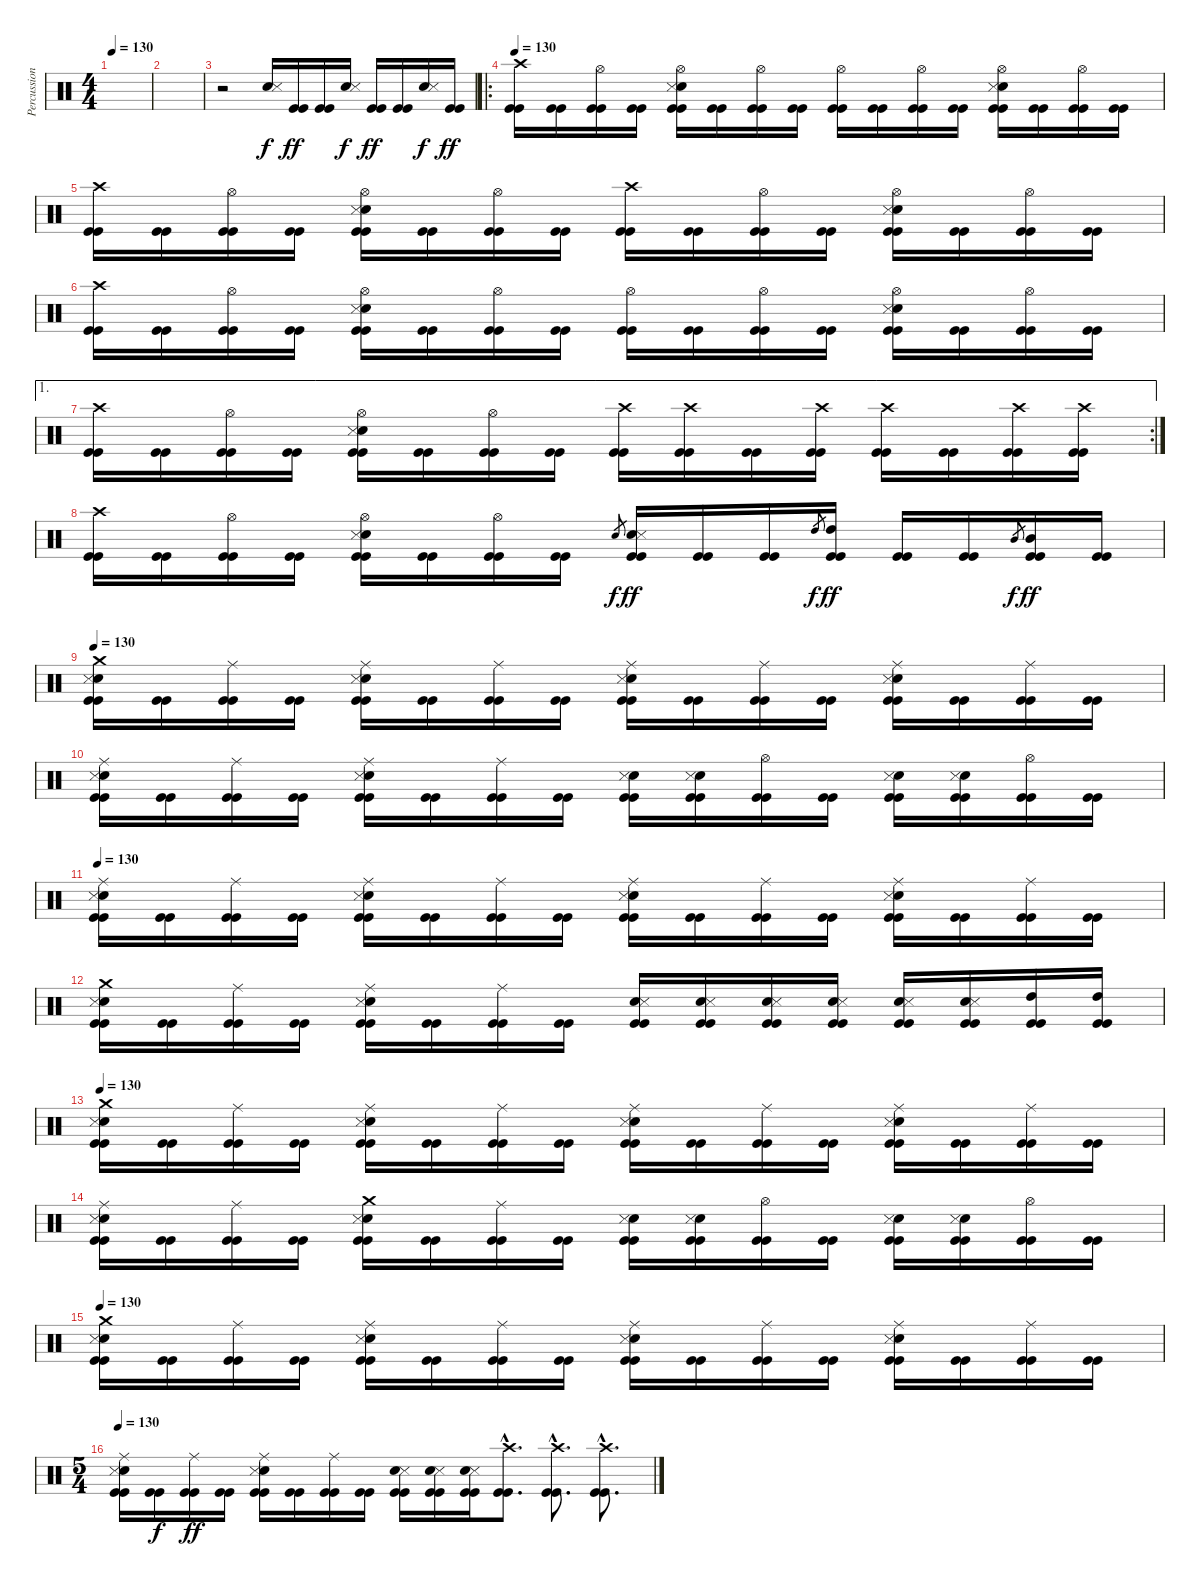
\track ("Percussion" "Percussion") {instrument percussion}
\staff {score}
\articulation defaults
\ts (4 4)
\tempo 130
\clef neutral
\ks c
|
|
r.2 ("Electric Snare (hit)" "Snare (side stick) 3").16{dy f} ("Kick (hit)" "Kick (hit)").16{dy ff} ("Kick (hit)" "Kick (hit)").16 ("Electric Snare (hit)" "Snare (side stick) 3").16{dy f} ("Kick (hit)" "Kick (hit)").16{dy ff} ("Kick (hit)" "Kick (hit)").16 ("Electric Snare (hit)" "Snare (side stick) 3").16{dy f} ("Kick (hit)" "Kick (hit)").16{dy ff} |
\ro
\tempo 130
("Crash high (hit)" "Kick (hit)" "Kick (hit)").16 ("Kick (hit)" "Kick (hit)").16 ("Hi-Hat (open)" "Kick (hit)" "Kick (hit)").16 ("Kick (hit)" "Kick (hit)").16 ("Electric Snare (hit)" "Snare (side stick) 3" "Hi-Hat (open)" "Kick (hit)" "Kick (hit)").16 ("Kick (hit)" "Kick (hit)").16 ("Hi-Hat (open)" "Kick (hit)" "Kick (hit)").16 ("Kick (hit)" "Kick (hit)").16 ("Hi-Hat (open)" "Kick (hit)" "Kick (hit)").16 ("Kick (hit)" "Kick (hit)").16 ("Hi-Hat (open)" "Kick (hit)" "Kick (hit)").16 ("Kick (hit)" "Kick (hit)").16 ("Electric Snare (hit)" "Snare (side stick) 3" "Hi-Hat (open)" "Kick (hit)" "Kick (hit)").16 ("Kick (hit)" "Kick (hit)").16 ("Hi-Hat (open)" "Kick (hit)" "Kick (hit)").16 ("Kick (hit)" "Kick (hit)").16 |
("Crash high (hit)" "Kick (hit)" "Kick (hit)").16 ("Kick (hit)" "Kick (hit)").16 ("Hi-Hat (open)" "Kick (hit)" "Kick (hit)").16 ("Kick (hit)" "Kick (hit)").16 ("Electric Snare (hit)" "Snare (side stick) 3" "Hi-Hat (open)" "Kick (hit)" "Kick (hit)").16 ("Kick (hit)" "Kick (hit)").16 ("Hi-Hat (open)" "Kick (hit)" "Kick (hit)").16 ("Kick (hit)" "Kick (hit)").16 ("Crash high (hit)" "Kick (hit)" "Kick (hit)").16 ("Kick (hit)" "Kick (hit)").16 ("Hi-Hat (open)" "Kick (hit)" "Kick (hit)").16 ("Kick (hit)" "Kick (hit)").16 ("Electric Snare (hit)" "Snare (side stick) 3" "Hi-Hat (open)" "Kick (hit)" "Kick (hit)").16 ("Kick (hit)" "Kick (hit)").16 ("Hi-Hat (open)" "Kick (hit)" "Kick (hit)").16 ("Kick (hit)" "Kick (hit)").16 |
("Crash high (hit)" "Kick (hit)" "Kick (hit)").16 ("Kick (hit)" "Kick (hit)").16 ("Hi-Hat (open)" "Kick (hit)" "Kick (hit)").16 ("Kick (hit)" "Kick (hit)").16 ("Electric Snare (hit)" "Snare (side stick) 3" "Hi-Hat (open)" "Kick (hit)" "Kick (hit)").16 ("Kick (hit)" "Kick (hit)").16 ("Hi-Hat (open)" "Kick (hit)" "Kick (hit)").16 ("Kick (hit)" "Kick (hit)").16 ("Hi-Hat (open)" "Kick (hit)" "Kick (hit)").16 ("Kick (hit)" "Kick (hit)").16 ("Hi-Hat (open)" "Kick (hit)" "Kick (hit)").16 ("Kick (hit)" "Kick (hit)").16 ("Electric Snare (hit)" "Snare (side stick) 3" "Hi-Hat (open)" "Kick (hit)" "Kick (hit)").16 ("Kick (hit)" "Kick (hit)").16 ("Hi-Hat (open)" "Kick (hit)" "Kick (hit)").16 ("Kick (hit)" "Kick (hit)").16 |
\ae 1
\rc 2
("Crash high (hit)" "Kick (hit)" "Kick (hit)").16 ("Kick (hit)" "Kick (hit)").16 ("Hi-Hat (open)" "Kick (hit)" "Kick (hit)").16 ("Kick (hit)" "Kick (hit)").16 ("Electric Snare (hit)" "Snare (side stick) 3" "Hi-Hat (open)" "Kick (hit)" "Kick (hit)").16 ("Kick (hit)" "Kick (hit)").16 ("Hi-Hat (open)" "Kick (hit)" "Kick (hit)").16 ("Kick (hit)" "Kick (hit)").16 ("Crash high (hit)" "Kick (hit)" "Kick (hit)").16 ("Crash high (hit)" "Kick (hit)" "Kick (hit)").16 ("Kick (hit)" "Kick (hit)").16 ("Crash high (hit)" "Kick (hit)" "Kick (hit)").16 ("Crash high (hit)" "Kick (hit)" "Kick (hit)").16 ("Kick (hit)" "Kick (hit)").16 ("Crash high (hit)" "Kick (hit)" "Kick (hit)").16 ("Crash high (hit)" "Kick (hit)" "Kick (hit)").16 |
("Crash high (hit)" "Kick (hit)" "Kick (hit)").16 ("Kick (hit)" "Kick (hit)").16 ("Hi-Hat (open)" "Kick (hit)" "Kick (hit)").16 ("Kick (hit)" "Kick (hit)").16 ("Electric Snare (hit)" "Snare (side stick) 3" "Hi-Hat (open)" "Kick (hit)" "Kick (hit)").16 ("Kick (hit)" "Kick (hit)").16 ("Hi-Hat (open)" "Kick (hit)" "Kick (hit)").16 ("Kick (hit)" "Kick (hit)").16 "Electric Snare (hit)".8{gr dy f} ("Electric Snare (hit)" "Snare (side stick) 3" "Kick (hit)" "Kick (hit)").16{dy ff} ("Kick (hit)" "Kick (hit)").16 ("Kick (hit)" "Kick (hit)").16 "High Tom (hit)".8{gr dy f} ("High Tom (hit)" "Kick (hit)" "Kick (hit)").16{dy ff} ("Kick (hit)" "Kick (hit)").16 ("Kick (hit)" "Kick (hit)").16 "Mid Tom (hit)".8{gr dy f} ("Mid Tom (hit)" "Kick (hit)" "Kick (hit)").16{dy ff} ("Kick (hit)" "Kick (hit)").16 |
\tempo 130
("Electric Snare (hit)" "Snare (side stick) 3" "Crash medium (hit)" "Kick (hit)" "Kick (hit)").16 ("Kick (hit)" "Kick (hit)").16 ("Ride (middle)" "Kick (hit)" "Kick (hit)").16 ("Kick (hit)" "Kick (hit)").16 ("Electric Snare (hit)" "Snare (side stick) 3" "Ride (middle)" "Kick (hit)" "Kick (hit)").16 ("Kick (hit)" "Kick (hit)").16 ("Ride (middle)" "Kick (hit)" "Kick (hit)").16 ("Kick (hit)" "Kick (hit)").16 ("Electric Snare (hit)" "Snare (side stick) 3" "Ride (middle)" "Kick (hit)" "Kick (hit)").16 ("Kick (hit)" "Kick (hit)").16 ("Ride (middle)" "Kick (hit)" "Kick (hit)").16 ("Kick (hit)" "Kick (hit)").16 ("Electric Snare (hit)" "Snare (side stick) 3" "Ride (middle)" "Kick (hit)" "Kick (hit)").16 ("Kick (hit)" "Kick (hit)").16 ("Ride (middle)" "Kick (hit)" "Kick (hit)").16 ("Kick (hit)" "Kick (hit)").16 |
("Electric Snare (hit)" "Snare (side stick) 3" "Ride (middle)" "Kick (hit)" "Kick (hit)").16 ("Kick (hit)" "Kick (hit)").16 ("Ride (middle)" "Kick (hit)" "Kick (hit)").16 ("Kick (hit)" "Kick (hit)").16 ("Electric Snare (hit)" "Snare (side stick) 3" "Ride (middle)" "Kick (hit)" "Kick (hit)").16 ("Kick (hit)" "Kick (hit)").16 ("Ride (middle)" "Kick (hit)" "Kick (hit)").16 ("Kick (hit)" "Kick (hit)").16 ("Electric Snare (hit)" "Snare (side stick) 3" "Kick (hit)" "Kick (hit)").16 ("Electric Snare (hit)" "Snare (side stick) 3" "Kick (hit)" "Kick (hit)").16 ("Hi-Hat (open)" "Kick (hit)" "Kick (hit)").16 ("Kick (hit)" "Kick (hit)").16 ("Electric Snare (hit)" "Snare (side stick) 3" "Kick (hit)" "Kick (hit)").16 ("Electric Snare (hit)" "Snare (side stick) 3" "Kick (hit)" "Kick (hit)").16 ("Hi-Hat (open)" "Kick (hit)" "Kick (hit)").16 ("Kick (hit)" "Kick (hit)").16 |
\tempo 130
("Electric Snare (hit)" "Snare (side stick) 3" "Ride (middle)" "Kick (hit)" "Kick (hit)").16 ("Kick (hit)" "Kick (hit)").16 ("Ride (middle)" "Kick (hit)" "Kick (hit)").16 ("Kick (hit)" "Kick (hit)").16 ("Electric Snare (hit)" "Snare (side stick) 3" "Ride (middle)" "Kick (hit)" "Kick (hit)").16 ("Kick (hit)" "Kick (hit)").16 ("Ride (middle)" "Kick (hit)" "Kick (hit)").16 ("Kick (hit)" "Kick (hit)").16 ("Electric Snare (hit)" "Snare (side stick) 3" "Ride (middle)" "Kick (hit)" "Kick (hit)").16 ("Kick (hit)" "Kick (hit)").16 ("Ride (middle)" "Kick (hit)" "Kick (hit)").16 ("Kick (hit)" "Kick (hit)").16 ("Electric Snare (hit)" "Snare (side stick) 3" "Ride (middle)" "Kick (hit)" "Kick (hit)").16 ("Kick (hit)" "Kick (hit)").16 ("Ride (middle)" "Kick (hit)" "Kick (hit)").16 ("Kick (hit)" "Kick (hit)").16 |
("Kick (hit)" "Crash medium (hit)" "Electric Snare (hit)" "Snare (side stick) 3" "Kick (hit)").16 ("Kick (hit)" "Kick (hit)").16 ("Ride (middle)" "Kick (hit)" "Kick (hit)").16 ("Kick (hit)" "Kick (hit)").16 ("Kick (hit)" "Ride (middle)" "Electric Snare (hit)" "Snare (side stick) 3" "Kick (hit)").16 ("Kick (hit)" "Kick (hit)").16 ("Ride (middle)" "Kick (hit)" "Kick (hit)").16 ("Kick (hit)" "Kick (hit)").16 ("Electric Snare (hit)" "Snare (side stick) 3" "Kick (hit)" "Kick (hit)").16 ("Electric Snare (hit)" "Snare (side stick) 3" "Kick (hit)" "Kick (hit)").16 ("Electric Snare (hit)" "Snare (side stick) 3" "Kick (hit)" "Kick (hit)").16 ("Electric Snare (hit)" "Snare (side stick) 3" "Kick (hit)" "Kick (hit)").16 ("Electric Snare (hit)" "Snare (side stick) 3" "Kick (hit)" "Kick (hit)").16 ("Electric Snare (hit)" "Snare (side stick) 3" "Kick (hit)" "Kick (hit)").16 ("High Tom (hit)" "Kick (hit)" "Kick (hit)").16 ("High Tom (hit)" "Kick (hit)" "Kick (hit)").16 |
\tempo 130
("Electric Snare (hit)" "Snare (side stick) 3" "Crash medium (hit)" "Kick (hit)" "Kick (hit)").16 ("Kick (hit)" "Kick (hit)").16 ("Ride (middle)" "Kick (hit)" "Kick (hit)").16 ("Kick (hit)" "Kick (hit)").16 ("Electric Snare (hit)" "Snare (side stick) 3" "Ride (middle)" "Kick (hit)" "Kick (hit)").16 ("Kick (hit)" "Kick (hit)").16 ("Ride (middle)" "Kick (hit)" "Kick (hit)").16 ("Kick (hit)" "Kick (hit)").16 ("Electric Snare (hit)" "Snare (side stick) 3" "Ride (middle)" "Kick (hit)" "Kick (hit)").16 ("Kick (hit)" "Kick (hit)").16 ("Ride (middle)" "Kick (hit)" "Kick (hit)").16 ("Kick (hit)" "Kick (hit)").16 ("Electric Snare (hit)" "Snare (side stick) 3" "Ride (middle)" "Kick (hit)" "Kick (hit)").16 ("Kick (hit)" "Kick (hit)").16 ("Ride (middle)" "Kick (hit)" "Kick (hit)").16 ("Kick (hit)" "Kick (hit)").16 |
("Electric Snare (hit)" "Snare (side stick) 3" "Ride (middle)" "Kick (hit)" "Kick (hit)").16 ("Kick (hit)" "Kick (hit)").16 ("Ride (middle)" "Kick (hit)" "Kick (hit)").16 ("Kick (hit)" "Kick (hit)").16 ("Electric Snare (hit)" "Snare (side stick) 3" "Crash medium (hit)" "Kick (hit)" "Kick (hit)").16 ("Kick (hit)" "Kick (hit)").16 ("Ride (middle)" "Kick (hit)" "Kick (hit)").16 ("Kick (hit)" "Kick (hit)").16 ("Electric Snare (hit)" "Snare (side stick) 3" "Kick (hit)" "Kick (hit)").16 ("Electric Snare (hit)" "Snare (side stick) 3" "Kick (hit)" "Kick (hit)").16 ("Hi-Hat (open)" "Kick (hit)" "Kick (hit)").16 ("Kick (hit)" "Kick (hit)").16 ("Electric Snare (hit)" "Snare (side stick) 3" "Kick (hit)" "Kick (hit)").16 ("Electric Snare (hit)" "Snare (side stick) 3" "Kick (hit)" "Kick (hit)").16 ("Hi-Hat (open)" "Kick (hit)" "Kick (hit)").16 ("Kick (hit)" "Kick (hit)").16 |
\tempo 130
("Electric Snare (hit)" "Snare (side stick) 3" "Crash medium (hit)" "Kick (hit)" "Kick (hit)").16 ("Kick (hit)" "Kick (hit)").16 ("Ride (middle)" "Kick (hit)" "Kick (hit)").16 ("Kick (hit)" "Kick (hit)").16 ("Electric Snare (hit)" "Snare (side stick) 3" "Ride (middle)" "Kick (hit)" "Kick (hit)").16 ("Kick (hit)" "Kick (hit)").16 ("Ride (middle)" "Kick (hit)" "Kick (hit)").16 ("Kick (hit)" "Kick (hit)").16 ("Electric Snare (hit)" "Snare (side stick) 3" "Ride (middle)" "Kick (hit)" "Kick (hit)").16 ("Kick (hit)" "Kick (hit)").16 ("Ride (middle)" "Kick (hit)" "Kick (hit)").16 ("Kick (hit)" "Kick (hit)").16 ("Electric Snare (hit)" "Snare (side stick) 3" "Ride (middle)" "Kick (hit)" "Kick (hit)").16 ("Kick (hit)" "Kick (hit)").16 ("Ride (middle)" "Kick (hit)" "Kick (hit)").16 ("Kick (hit)" "Kick (hit)").16 |
\ts (5 4)
\tempo 130
("Electric Snare (hit)" "Snare (side stick) 3" "Ride (middle)" "Kick (hit)" "Kick (hit)").16 ("Kick (hit)" "Kick (hit)").16{dy f} ("Ride (middle)" "Kick (hit)" "Kick (hit)").16{dy ff} ("Kick (hit)" "Kick (hit)").16 ("Electric Snare (hit)" "Snare (side stick) 3" "Ride (middle)" "Kick (hit)" "Kick (hit)").16 ("Kick (hit)" "Kick (hit)").16 ("Ride (middle)" "Kick (hit)" "Kick (hit)").16 ("Kick (hit)" "Kick (hit)").16 ("Snare (side stick) 3" "Electric Snare (hit)" "Kick (hit)" "Kick (hit)").16 ("Snare (side stick) 3" "Electric Snare (hit)" "Kick (hit)" "Kick (hit)").16 ("Snare (side stick) 3" "Electric Snare (hit)" "Kick (hit)" "Kick (hit)").16 ("Crash high (hit)"{hac} "Kick (hit)"{hac} "Kick (hit)"{hac}).8{d} ("Crash high (hit)"{hac} "Kick (hit)"{hac} "Kick (hit)"{hac}).8{d} ("Crash high (hit)"{hac} "Kick (hit)"{hac} "Kick (hit)"{hac}).8{d}
